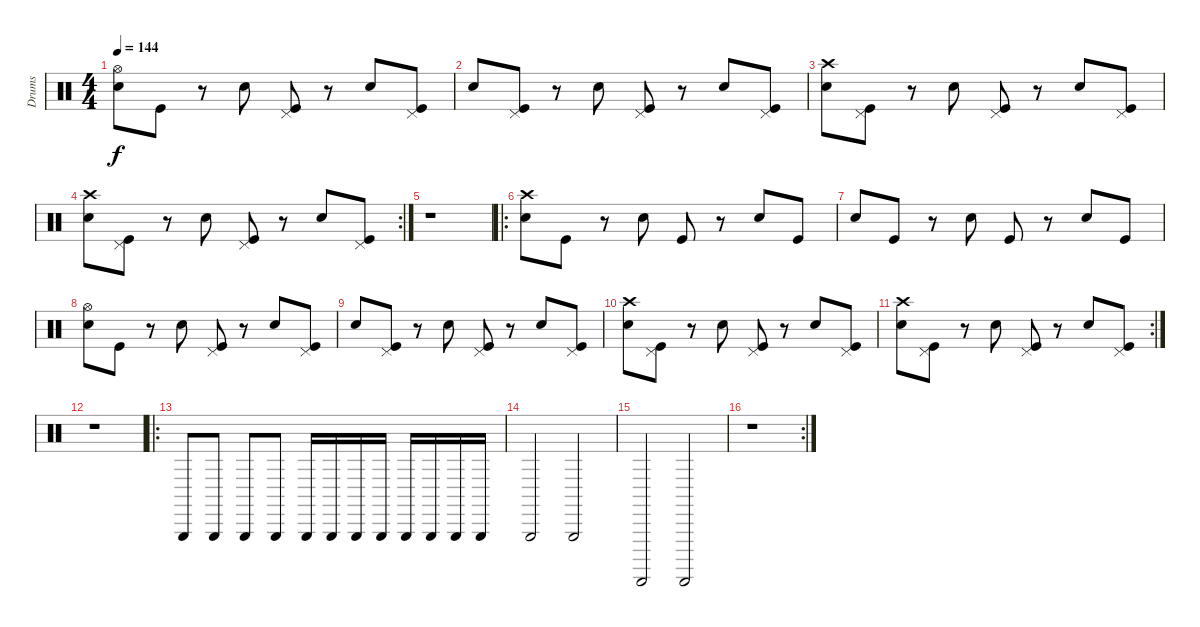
\track ("Drums" "Drums") {instrument percussion}
\staff {score}
\articulation defaults
\ts (4 4)
\tempo 144
\clef neutral
\ks c
("Hi-Hat (open)" "Snare (hit) 2").8{dy f} "Kick (hit)".8 r.8 "Snare (hit) 2".8 ("Pedal Hi-Hat (hit)" "Kick (hit)").8 r.8 "Snare (hit) 2".8 ("Pedal Hi-Hat (hit)" "Kick (hit)").8 |
"Snare (hit) 2".8 ("Pedal Hi-Hat (hit)" "Kick (hit)").8 r.8 "Snare (hit) 2".8 ("Pedal Hi-Hat (hit)" "Kick (hit)").8 r.8 "Snare (hit) 2".8 ("Pedal Hi-Hat (hit)" "Kick (hit)").8 |
("Crash high (hit)" "Snare (hit) 2").8 ("Pedal Hi-Hat (hit)" "Kick (hit)").8 r.8 "Snare (hit) 2".8 ("Pedal Hi-Hat (hit)" "Kick (hit)").8 r.8 "Snare (hit) 2".8 ("Pedal Hi-Hat (hit)" "Kick (hit)").8 |
\rc 2
("Crash high (hit)" "Snare (hit) 2").8 ("Pedal Hi-Hat (hit)" "Kick (hit)").8 r.8 "Snare (hit) 2".8 ("Pedal Hi-Hat (hit)" "Kick (hit)").8 r.8 "Snare (hit) 2".8 ("Pedal Hi-Hat (hit)" "Kick (hit)").8 |
r.1 |
\ro
("Crash high (hit)" "Snare (hit) 2").8 "Kick (hit)".8 r.8 "Snare (hit) 2".8 "Kick (hit)".8 r.8 "Snare (hit) 2".8 "Kick (hit)".8 |
"Snare (hit) 2".8 "Kick (hit)".8 r.8 "Snare (hit) 2".8 "Kick (hit)".8 r.8 "Snare (hit) 2".8 "Kick (hit)".8 |
("Hi-Hat (open)" "Snare (hit) 2").8 "Kick (hit)".8 r.8 "Snare (hit) 2".8 ("Pedal Hi-Hat (hit)" "Kick (hit)").8 r.8 "Snare (hit) 2".8 ("Pedal Hi-Hat (hit)" "Kick (hit)").8 |
"Snare (hit) 2".8 ("Pedal Hi-Hat (hit)" "Kick (hit)").8 r.8 "Snare (hit) 2".8 ("Pedal Hi-Hat (hit)" "Kick (hit)").8 r.8 "Snare (hit) 2".8 ("Pedal Hi-Hat (hit)" "Kick (hit)").8 |
("Crash high (hit)" "Snare (hit) 2").8 ("Pedal Hi-Hat (hit)" "Kick (hit)").8 r.8 "Snare (hit) 2".8 ("Pedal Hi-Hat (hit)" "Kick (hit)").8 r.8 "Snare (hit) 2".8 ("Pedal Hi-Hat (hit)" "Kick (hit)").8 |
\rc 2
("Crash high (hit)" "Snare (hit) 2").8 ("Pedal Hi-Hat (hit)" "Kick (hit)").8 r.8 "Snare (hit) 2".8 ("Pedal Hi-Hat (hit)" "Kick (hit)").8 r.8 "Snare (hit) 2".8 ("Pedal Hi-Hat (hit)" "Kick (hit)").8 |
r.1 |
\ro "Triangle (hit)".8 "Triangle (hit)".8 "Triangle (hit)".8 "Triangle (hit)".8 "Triangle (hit)".16 "Triangle (hit)".16 "Triangle (hit)".16 "Triangle (hit)".16 "Triangle (hit)".16 "Triangle (hit)".16 "Triangle (hit)".16 "Triangle (hit)".16
|
"Triangle (hit)".2 "Triangle (hit)".2 |
"Guiro (scrap-return)".2 "Guiro (scrap-return)".2 |
\rc 2
r.1
